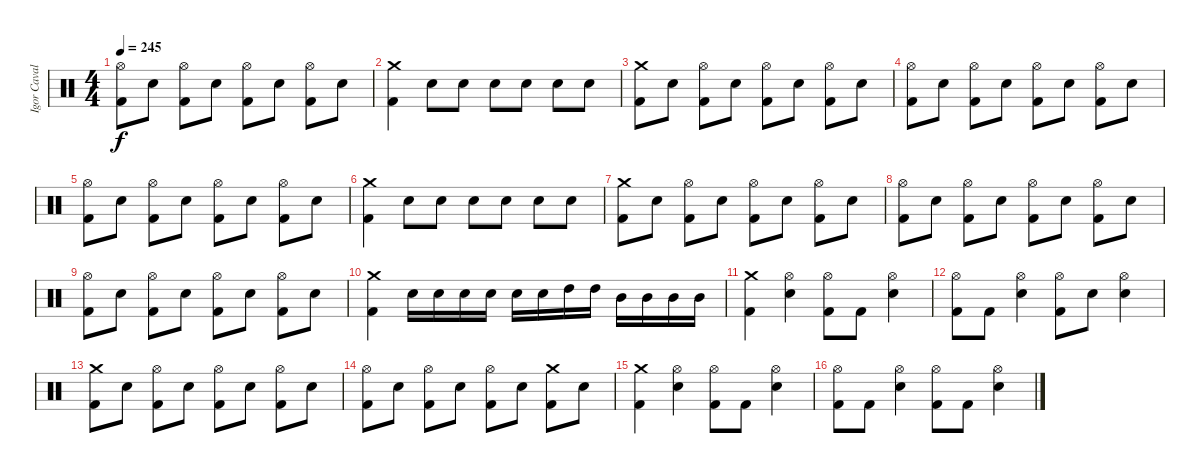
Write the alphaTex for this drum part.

\track ("Igor Cavalera" "Igor Caval") {instrument percussion}
\staff {score}
\articulation defaults
\ts (4 4)
\tempo 245
\clef neutral
\ks c
("Hi-Hat (open)" "Kick (hit) 2").8{dy f} "Electric Snare (hit)".8 ("Hi-Hat (open)" "Kick (hit) 2").8 "Electric Snare (hit)".8 ("Hi-Hat (open)" "Kick (hit) 2").8 "Electric Snare (hit)".8 ("Hi-Hat (open)" "Kick (hit) 2").8 "Electric Snare (hit)".8 |
("Crash medium (hit)" "Kick (hit) 2").4 "Electric Snare (hit)".8 "Electric Snare (hit)".8 "Electric Snare (hit)".8 "Electric Snare (hit)".8 "Electric Snare (hit)".8 "Electric Snare (hit)".8 |
("Crash medium (hit)" "Kick (hit) 2").8 "Electric Snare (hit)".8 ("Hi-Hat (open)" "Kick (hit) 2").8 "Electric Snare (hit)".8 ("Hi-Hat (open)" "Kick (hit) 2").8 "Electric Snare (hit)".8 ("Hi-Hat (open)" "Kick (hit) 2").8 "Electric Snare (hit)".8 |
("Hi-Hat (open)" "Kick (hit) 2").8 "Electric Snare (hit)".8 ("Hi-Hat (open)" "Kick (hit) 2").8 "Electric Snare (hit)".8 ("Hi-Hat (open)" "Kick (hit) 2").8 "Electric Snare (hit)".8 ("Hi-Hat (open)" "Kick (hit) 2").8 "Electric Snare (hit)".8 |
("Hi-Hat (open)" "Kick (hit) 2").8 "Electric Snare (hit)".8 ("Hi-Hat (open)" "Kick (hit) 2").8 "Electric Snare (hit)".8 ("Hi-Hat (open)" "Kick (hit) 2").8 "Electric Snare (hit)".8 ("Hi-Hat (open)" "Kick (hit) 2").8 "Electric Snare (hit)".8 |
("Crash medium (hit)" "Kick (hit) 2").4 "Electric Snare (hit)".8 "Electric Snare (hit)".8 "Electric Snare (hit)".8 "Electric Snare (hit)".8 "Electric Snare (hit)".8 "Electric Snare (hit)".8 |
("Crash medium (hit)" "Kick (hit) 2").8 "Electric Snare (hit)".8 ("Hi-Hat (open)" "Kick (hit) 2").8 "Electric Snare (hit)".8 ("Hi-Hat (open)" "Kick (hit) 2").8 "Electric Snare (hit)".8 ("Hi-Hat (open)" "Kick (hit) 2").8 "Electric Snare (hit)".8 |
("Hi-Hat (open)" "Kick (hit) 2").8 "Electric Snare (hit)".8 ("Hi-Hat (open)" "Kick (hit) 2").8 "Electric Snare (hit)".8 ("Hi-Hat (open)" "Kick (hit) 2").8 "Electric Snare (hit)".8 ("Hi-Hat (open)" "Kick (hit) 2").8 "Electric Snare (hit)".8 |
("Hi-Hat (open)" "Kick (hit) 2").8 "Electric Snare (hit)".8 ("Hi-Hat (open)" "Kick (hit) 2").8 "Electric Snare (hit)".8 ("Hi-Hat (open)" "Kick (hit) 2").8 "Electric Snare (hit)".8 ("Hi-Hat (open)" "Kick (hit) 2").8 "Electric Snare (hit)".8 |
("Crash medium (hit)" "Kick (hit) 2").4 "Electric Snare (hit)".16 "Electric Snare (hit)".16 "Electric Snare (hit)".16 "Electric Snare (hit)".16 "Electric Snare (hit)".16 "Electric Snare (hit)".16 "High Tom (hit)".16 "High Tom (hit)".16 "Mid Tom (hit)".16 "Mid Tom (hit)".16 "Mid Tom (hit)".16 "Mid Tom (hit)".16 |
("Crash medium (hit)" "Kick (hit) 2").4 ("Hi-Hat (open)" "Electric Snare (hit)").4 ("Hi-Hat (open)" "Kick (hit) 2").8 "Kick (hit) 2".8 ("Hi-Hat (open)" "Electric Snare (hit)").4 |
("Hi-Hat (open)" "Kick (hit) 2").8 "Kick (hit) 2".8 ("Hi-Hat (open)" "Electric Snare (hit)").4 ("Hi-Hat (open)" "Kick (hit) 2").8 "Electric Snare (hit)".8 ("Hi-Hat (open)" "Electric Snare (hit)").4 |
("Crash medium (hit)" "Kick (hit) 2").8 "Electric Snare (hit)".8 ("Hi-Hat (open)" "Kick (hit) 2").8 "Electric Snare (hit)".8 ("Hi-Hat (open)" "Kick (hit) 2").8 "Electric Snare (hit)".8 ("Hi-Hat (open)" "Kick (hit) 2").8 "Electric Snare (hit)".8 |
("Hi-Hat (open)" "Kick (hit) 2").8 "Electric Snare (hit)".8 ("Hi-Hat (open)" "Kick (hit) 2").8 "Electric Snare (hit)".8 ("Hi-Hat (open)" "Kick (hit) 2").8 "Electric Snare (hit)".8 ("Crash medium (hit)" "Kick (hit) 2").8 "Electric Snare (hit)".8 |
("Crash medium (hit)" "Kick (hit) 2").4 ("Hi-Hat (open)" "Electric Snare (hit)").4 ("Hi-Hat (open)" "Kick (hit) 2").8 "Kick (hit) 2".8 ("Hi-Hat (open)" "Electric Snare (hit)").4 |
("Hi-Hat (open)" "Kick (hit) 2").8 "Kick (hit) 2".8 ("Hi-Hat (open)" "Electric Snare (hit)").4 ("Hi-Hat (open)" "Kick (hit) 2").8 "Kick (hit) 2".8 ("Hi-Hat (open)" "Electric Snare (hit)").4
